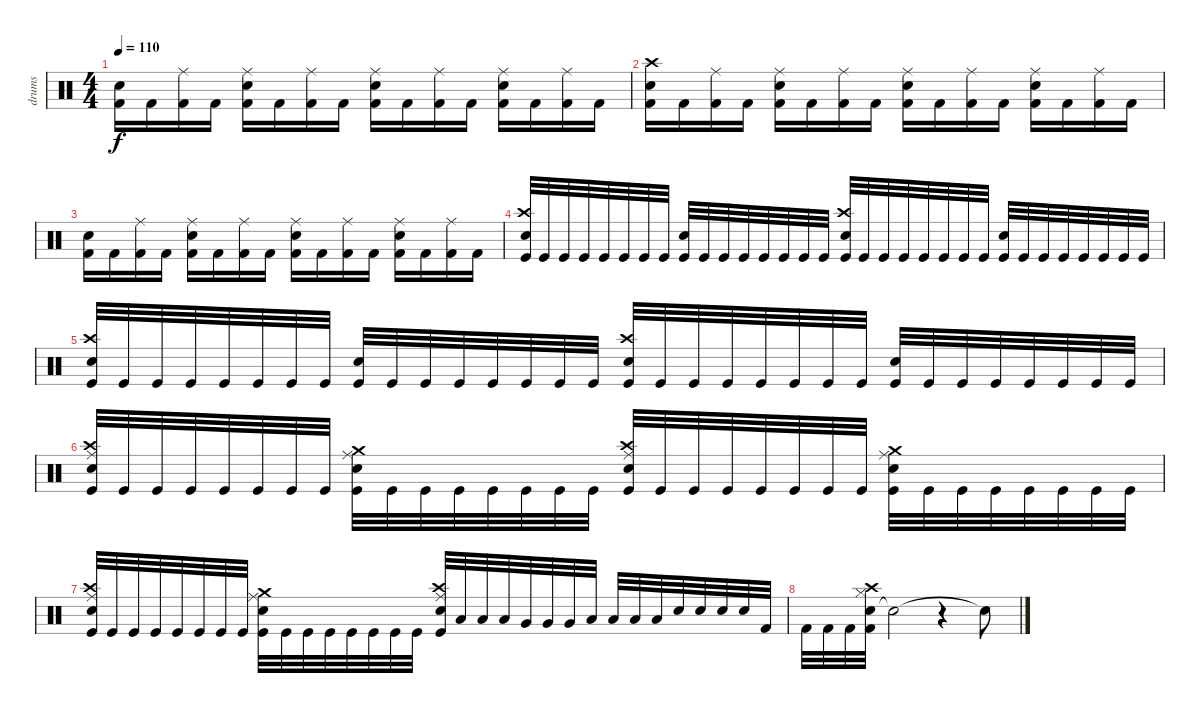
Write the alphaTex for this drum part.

\track ("drums" "drums") {instrument percussion}
\staff {score}
\articulation defaults
\ts (4 4)
\tempo 110
\clef neutral
\ks c
("Kick (hit) 2" "Snare (hit) 2").16{dy f} "Kick (hit) 2".16 ("Kick (hit) 2" "Ride (middle)").16 "Kick (hit) 2".16 ("Kick (hit) 2" "Ride (middle)" "Electric Snare (hit)").16 "Kick (hit) 2".16 ("Kick (hit) 2" "Ride (middle)").16 "Kick (hit) 2".16 ("Kick (hit) 2" "Ride (middle)" "Snare (hit) 2").16 "Kick (hit) 2".16 ("Kick (hit) 2" "Ride (middle)").16 "Kick (hit) 2".16 ("Kick (hit) 2" "Ride (middle)" "Electric Snare (hit)").16 "Kick (hit) 2".16 ("Kick (hit) 2" "Ride (middle)").16 "Kick (hit) 2".16 |
("Kick (hit) 2" "Crash high (hit)" "Snare (hit) 2").16 "Kick (hit) 2".16 ("Kick (hit) 2" "Ride (middle)").16 "Kick (hit) 2".16 ("Kick (hit) 2" "Ride (middle)" "Electric Snare (hit)").16 "Kick (hit) 2".16 ("Kick (hit) 2" "Ride (middle)").16 "Kick (hit) 2".16 ("Kick (hit) 2" "Ride (middle)" "Snare (hit) 2").16 "Kick (hit) 2".16 ("Kick (hit) 2" "Ride (middle)").16 "Kick (hit) 2".16 ("Kick (hit) 2" "Ride (middle)" "Electric Snare (hit)").16 "Kick (hit) 2".16 ("Kick (hit) 2" "Ride (middle)").16 "Kick (hit) 2".16 |
("Kick (hit) 2" "Snare (hit) 2").16 "Kick (hit) 2".16 ("Kick (hit) 2" "Ride (middle)").16 "Kick (hit) 2".16 ("Kick (hit) 2" "Ride (middle)" "Electric Snare (hit)").16 "Kick (hit) 2".16 ("Kick (hit) 2" "Ride (middle)").16 "Kick (hit) 2".16 ("Kick (hit) 2" "Ride (middle)" "Snare (hit) 2").16 "Kick (hit) 2".16 ("Kick (hit) 2" "Ride (middle)").16 "Kick (hit) 2".16 ("Kick (hit) 2" "Ride (middle)" "Electric Snare (hit)").16 "Kick (hit) 2".16 ("Kick (hit) 2" "Ride (middle)").16 "Kick (hit) 2".16 |
("Kick (hit)" "Snare (hit) 2" "Crash high (hit)").32 "Kick (hit)".32 "Kick (hit)".32 "Kick (hit)".32 "Kick (hit)".32 "Kick (hit)".32 "Kick (hit)".32 "Kick (hit)".32 ("Kick (hit)" "Snare (hit) 2").32 "Kick (hit)".32 "Kick (hit)".32 "Kick (hit)".32 "Kick (hit)".32 "Kick (hit)".32 "Kick (hit)".32 "Kick (hit)".32 ("Kick (hit)" "Snare (hit) 2" "Crash high (hit)").32 "Kick (hit)".32 "Kick (hit)".32 "Kick (hit)".32 "Kick (hit)".32 "Kick (hit)".32 "Kick (hit)".32 "Kick (hit)".32 ("Kick (hit)" "Snare (hit) 2").32 "Kick (hit)".32 "Kick (hit)".32 "Kick (hit)".32 "Kick (hit)".32 "Kick (hit)".32 "Kick (hit)".32 "Kick (hit)".32 |
("Kick (hit)" "Snare (hit) 2" "Crash high (hit)").32 "Kick (hit)".32 "Kick (hit)".32 "Kick (hit)".32 "Kick (hit)".32 "Kick (hit)".32 "Kick (hit)".32 "Kick (hit)".32 ("Kick (hit)" "Snare (hit) 2").32 "Kick (hit)".32 "Kick (hit)".32 "Kick (hit)".32 "Kick (hit)".32 "Kick (hit)".32 "Kick (hit)".32 "Kick (hit)".32 ("Kick (hit)" "Snare (hit) 2" "Crash high (hit)").32 "Kick (hit)".32 "Kick (hit)".32 "Kick (hit)".32 "Kick (hit)".32 "Kick (hit)".32 "Kick (hit)".32 "Kick (hit)".32 ("Kick (hit)" "Snare (hit) 2").32 "Kick (hit)".32 "Kick (hit)".32 "Kick (hit)".32 "Kick (hit)".32 "Kick (hit)".32 "Kick (hit)".32 "Kick (hit)".32 |
("Kick (hit)" "Snare (hit) 2" "Crash high (hit)" "Ride (middle)").32 "Kick (hit)".32 "Kick (hit)".32 "Kick (hit)".32 "Kick (hit)".32 "Kick (hit)".32 "Kick (hit)".32 "Kick (hit)".32 ("Kick (hit)" "Snare (hit) 2" "Crash medium (hit)" "Ride (middle)").32 "Kick (hit)".32 "Kick (hit)".32 "Kick (hit)".32 "Kick (hit)".32 "Kick (hit)".32 "Kick (hit)".32 "Kick (hit)".32 ("Kick (hit)" "Snare (hit) 2" "Crash high (hit)" "Ride (middle)").32 "Kick (hit)".32 "Kick (hit)".32 "Kick (hit)".32 "Kick (hit)".32 "Kick (hit)".32 "Kick (hit)".32 "Kick (hit)".32 ("Kick (hit)" "Snare (hit) 2" "Crash medium (hit)" "Ride (middle)").32 "Kick (hit)".32 "Kick (hit)".32 "Kick (hit)".32 "Kick (hit)".32 "Kick (hit)".32 "Kick (hit)".32 "Kick (hit)".32 |
("Kick (hit)" "Snare (hit) 2" "Crash high (hit)" "Ride (middle)").32 "Kick (hit)".32 "Kick (hit)".32 "Kick (hit)".32 "Kick (hit)".32 "Kick (hit)".32 "Kick (hit)".32 "Kick (hit)".32 ("Kick (hit)" "Snare (hit) 2" "Crash medium (hit)" "Ride (middle)").32 "Kick (hit)".32 "Kick (hit)".32 "Kick (hit)".32 "Kick (hit)".32 "Kick (hit)".32 "Kick (hit)".32 "Kick (hit)".32 ("Kick (hit)" "Snare (hit) 2" "Crash high (hit)" "Ride (middle)").32 "Low Floor Tom (hit)".32 "Low Floor Tom (hit)".32 "Low Floor Tom (hit)".32 "Very Low Tom (hit)".32 "Very Low Tom (hit)".32 "Very Low Tom (hit)".32 "Low Tom (hit)".32 "Low Tom (hit)".32 "Low Tom (hit)".32 "Low Tom (hit)".32 "Electric Snare (hit)".32 "Electric Snare (hit)".32 "Electric Snare (hit)".32 "Electric Snare (hit)".32 "Kick (hit) 2".32 |
"Kick (hit) 2".32 "Kick (hit) 2".32 "Kick (hit) 2".32 ("Snare (hit) 2" "Hi-Hat (closed)" "Crash high (hit)" "Kick (hit) 2").32 "Snare (hit)"{t}.2 r.4 "Snare (hit)"{t}.8
